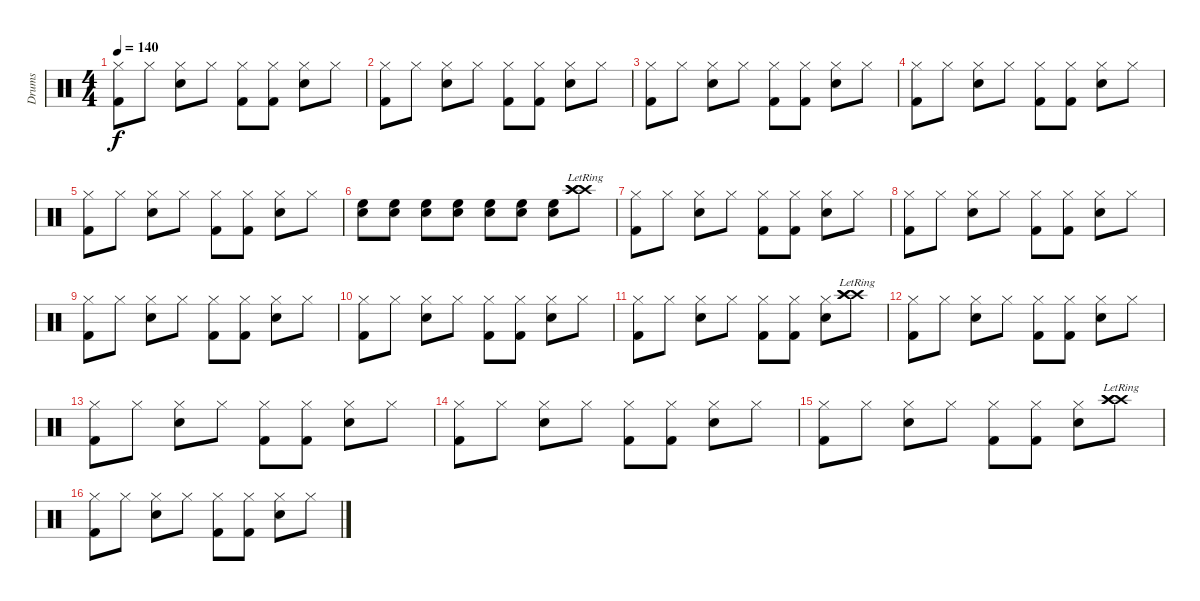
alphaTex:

\track ("Drums" "Drums") {instrument percussion}
\staff {score}
\articulation defaults
\ts (4 4)
\tempo 140
\clef neutral
\ks c
("Hi-Hat (closed)" "Kick (hit) 2").8{dy f} "Hi-Hat (closed)".8 ("Hi-Hat (closed)" "Snare (hit) 2").8 "Hi-Hat (closed)".8 ("Hi-Hat (closed)" "Kick (hit) 2").8 ("Hi-Hat (closed)" "Kick (hit) 2").8 ("Hi-Hat (closed)" "Snare (hit) 2").8 "Hi-Hat (closed)".8 |
("Hi-Hat (closed)" "Kick (hit) 2").8 "Hi-Hat (closed)".8 ("Hi-Hat (closed)" "Snare (hit) 2").8 "Hi-Hat (closed)".8 ("Hi-Hat (closed)" "Kick (hit) 2").8 ("Hi-Hat (closed)" "Kick (hit) 2").8 ("Hi-Hat (closed)" "Snare (hit) 2").8 "Hi-Hat (closed)".8 |
("Hi-Hat (closed)" "Kick (hit) 2").8 "Hi-Hat (closed)".8 ("Hi-Hat (closed)" "Snare (hit) 2").8 "Hi-Hat (closed)".8 ("Hi-Hat (closed)" "Kick (hit) 2").8 ("Hi-Hat (closed)" "Kick (hit) 2").8 ("Hi-Hat (closed)" "Snare (hit) 2").8 "Hi-Hat (closed)".8 |
("Hi-Hat (closed)" "Kick (hit) 2").8 "Hi-Hat (closed)".8 ("Hi-Hat (closed)" "Snare (hit) 2").8 "Hi-Hat (closed)".8 ("Hi-Hat (closed)" "Kick (hit) 2").8 ("Hi-Hat (closed)" "Kick (hit) 2").8 ("Hi-Hat (closed)" "Snare (hit) 2").8 "Hi-Hat (closed)".8 |
("Hi-Hat (closed)" "Kick (hit) 2").8 "Hi-Hat (closed)".8 ("Hi-Hat (closed)" "Snare (hit) 2").8 "Hi-Hat (closed)".8 ("Hi-Hat (closed)" "Kick (hit) 2").8 ("Hi-Hat (closed)" "Kick (hit) 2").8 ("Hi-Hat (closed)" "Snare (hit) 2").8 "Hi-Hat (closed)".8 |
("High Floor Tom (hit)" "Snare (hit) 2").8 ("High Floor Tom (hit)" "Snare (hit) 2").8 ("High Floor Tom (hit)" "Snare (hit) 2").8 ("High Floor Tom (hit)" "Snare (hit) 2").8 ("High Floor Tom (hit)" "Snare (hit) 2").8 ("High Floor Tom (hit)" "Snare (hit) 2").8 ("High Floor Tom (hit)" "Snare (hit) 2").8 ("Crash high (hit)"{lr} "Crash high (hit)"{lr} "Crash high (hit)"{lr}).8 |
("Hi-Hat (closed)" "Kick (hit) 2").8 "Hi-Hat (closed)".8 ("Hi-Hat (closed)" "Snare (hit) 2").8 "Hi-Hat (closed)".8 ("Hi-Hat (closed)" "Kick (hit) 2").8 ("Hi-Hat (closed)" "Kick (hit) 2").8 ("Hi-Hat (closed)" "Snare (hit) 2").8 "Hi-Hat (closed)".8 |
("Hi-Hat (closed)" "Kick (hit) 2").8 "Hi-Hat (closed)".8 ("Hi-Hat (closed)" "Snare (hit) 2").8 "Hi-Hat (closed)".8 ("Hi-Hat (closed)" "Kick (hit) 2").8 ("Hi-Hat (closed)" "Kick (hit) 2").8 ("Hi-Hat (closed)" "Snare (hit) 2").8 "Hi-Hat (closed)".8 |
("Hi-Hat (closed)" "Kick (hit) 2").8 "Hi-Hat (closed)".8 ("Hi-Hat (closed)" "Snare (hit) 2").8 "Hi-Hat (closed)".8 ("Hi-Hat (closed)" "Kick (hit) 2").8 ("Hi-Hat (closed)" "Kick (hit) 2").8 ("Hi-Hat (closed)" "Snare (hit) 2").8 "Hi-Hat (closed)".8 |
("Hi-Hat (closed)" "Kick (hit) 2").8 "Hi-Hat (closed)".8 ("Hi-Hat (closed)" "Snare (hit) 2").8 "Hi-Hat (closed)".8 ("Hi-Hat (closed)" "Kick (hit) 2").8 ("Hi-Hat (closed)" "Kick (hit) 2").8 ("Hi-Hat (closed)" "Snare (hit) 2").8 "Hi-Hat (closed)".8 |
("Hi-Hat (closed)" "Kick (hit) 2").8 "Hi-Hat (closed)".8 ("Hi-Hat (closed)" "Snare (hit) 2").8 "Hi-Hat (closed)".8 ("Hi-Hat (closed)" "Kick (hit) 2").8 ("Hi-Hat (closed)" "Kick (hit) 2").8 ("Hi-Hat (closed)" "Snare (hit) 2").8 ("Crash high (hit)"{lr} "Crash high (hit)"{lr} "Crash high (hit)"{lr}).8 |
("Hi-Hat (closed)" "Kick (hit) 2").8 "Hi-Hat (closed)".8 ("Hi-Hat (closed)" "Snare (hit) 2").8 "Hi-Hat (closed)".8 ("Hi-Hat (closed)" "Kick (hit) 2").8 ("Hi-Hat (closed)" "Kick (hit) 2").8 ("Hi-Hat (closed)" "Snare (hit) 2").8 "Hi-Hat (closed)".8 |
("Hi-Hat (closed)" "Kick (hit) 2").8 "Hi-Hat (closed)".8 ("Hi-Hat (closed)" "Snare (hit) 2").8 "Hi-Hat (closed)".8 ("Hi-Hat (closed)" "Kick (hit) 2").8 ("Hi-Hat (closed)" "Kick (hit) 2").8 ("Hi-Hat (closed)" "Snare (hit) 2").8 "Hi-Hat (closed)".8 |
("Hi-Hat (closed)" "Kick (hit) 2").8 "Hi-Hat (closed)".8 ("Hi-Hat (closed)" "Snare (hit) 2").8 "Hi-Hat (closed)".8 ("Hi-Hat (closed)" "Kick (hit) 2").8 ("Hi-Hat (closed)" "Kick (hit) 2").8 ("Hi-Hat (closed)" "Snare (hit) 2").8 "Hi-Hat (closed)".8 |
("Hi-Hat (closed)" "Kick (hit) 2").8 "Hi-Hat (closed)".8 ("Hi-Hat (closed)" "Snare (hit) 2").8 "Hi-Hat (closed)".8 ("Hi-Hat (closed)" "Kick (hit) 2").8 ("Hi-Hat (closed)" "Kick (hit) 2").8 ("Hi-Hat (closed)" "Snare (hit) 2").8 ("Crash high (hit)"{lr} "Crash high (hit)"{lr} "Crash high (hit)").8 |
("Hi-Hat (closed)" "Kick (hit) 2").8 "Hi-Hat (closed)".8 ("Hi-Hat (closed)" "Snare (hit) 2").8 "Hi-Hat (closed)".8 ("Hi-Hat (closed)" "Kick (hit) 2").8 ("Hi-Hat (closed)" "Kick (hit) 2").8 ("Hi-Hat (closed)" "Snare (hit) 2").8 "Hi-Hat (closed)".8
